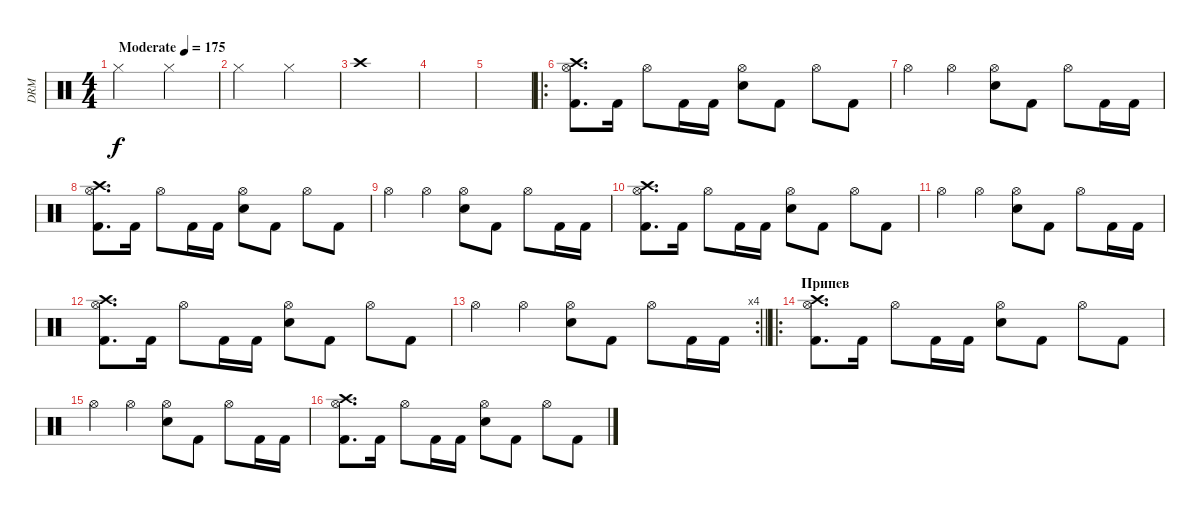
\track ("DRM " "DRM ") {instrument percussion}
\staff {score}
\articulation defaults
\ts (4 4)
\tempo (175 "Moderate")
\clef neutral
\ks c "Hi-Hat (closed)".2{dy f} "Hi-Hat (closed)".2
|
"Hi-Hat (closed)".2 "Hi-Hat (closed)".2 |
"Crash high (hit)".1 |
|
|
\ro
("Hi-Hat (open)" "Crash high (hit)" "Kick (hit) 2").8{d volume 15} "Kick (hit) 2".16 "Hi-Hat (open)".8 "Kick (hit) 2".16 "Kick (hit) 2".16 ("Hi-Hat (open)" "Electric Snare (hit)").8 "Kick (hit) 2".8 "Hi-Hat (open)".8 "Kick (hit) 2".8 |
"Hi-Hat (open)".4 "Hi-Hat (open)".4 ("Hi-Hat (open)" "Electric Snare (hit)").8 "Kick (hit) 2".8 "Hi-Hat (open)".8 "Kick (hit) 2".16 "Kick (hit) 2".16 |
("Hi-Hat (open)" "Crash high (hit)" "Kick (hit) 2").8{d volume 15} "Kick (hit) 2".16 "Hi-Hat (open)".8 "Kick (hit) 2".16 "Kick (hit) 2".16 ("Hi-Hat (open)" "Electric Snare (hit)").8 "Kick (hit) 2".8 "Hi-Hat (open)".8 "Kick (hit) 2".8 |
"Hi-Hat (open)".4 "Hi-Hat (open)".4 ("Hi-Hat (open)" "Electric Snare (hit)").8 "Kick (hit) 2".8 "Hi-Hat (open)".8 "Kick (hit) 2".16 "Kick (hit) 2".16 |
("Hi-Hat (open)" "Crash high (hit)" "Kick (hit) 2").8{d volume 15} "Kick (hit) 2".16 "Hi-Hat (open)".8 "Kick (hit) 2".16 "Kick (hit) 2".16 ("Hi-Hat (open)" "Electric Snare (hit)").8 "Kick (hit) 2".8 "Hi-Hat (open)".8 "Kick (hit) 2".8 |
"Hi-Hat (open)".4 "Hi-Hat (open)".4 ("Hi-Hat (open)" "Electric Snare (hit)").8 "Kick (hit) 2".8 "Hi-Hat (open)".8 "Kick (hit) 2".16 "Kick (hit) 2".16 |
("Hi-Hat (open)" "Crash high (hit)" "Kick (hit) 2").8{d volume 15} "Kick (hit) 2".16 "Hi-Hat (open)".8 "Kick (hit) 2".16 "Kick (hit) 2".16 ("Hi-Hat (open)" "Electric Snare (hit)").8 "Kick (hit) 2".8 "Hi-Hat (open)".8 "Kick (hit) 2".8 |
\rc 4
\barLineRight lightlight "Hi-Hat (open)".4 "Hi-Hat (open)".4
("Hi-Hat (open)" "Electric Snare (hit)").8 "Kick (hit) 2".8 "Hi-Hat (open)".8 "Kick (hit) 2".16 "Kick (hit) 2".16 |
\ro
\section ("" "Припев")
("Hi-Hat (open)" "Crash high (hit)" "Kick (hit) 2").8{d volume 15} "Kick (hit) 2".16 "Hi-Hat (open)".8 "Kick (hit) 2".16 "Kick (hit) 2".16 ("Hi-Hat (open)" "Electric Snare (hit)").8 "Kick (hit) 2".8 "Hi-Hat (open)".8 "Kick (hit) 2".8 |
"Hi-Hat (open)".4 "Hi-Hat (open)".4 ("Hi-Hat (open)" "Electric Snare (hit)").8 "Kick (hit) 2".8 "Hi-Hat (open)".8 "Kick (hit) 2".16 "Kick (hit) 2".16 |
("Hi-Hat (open)" "Crash high (hit)" "Kick (hit) 2").8{d volume 15} "Kick (hit) 2".16 "Hi-Hat (open)".8 "Kick (hit) 2".16 "Kick (hit) 2".16 ("Hi-Hat (open)" "Electric Snare (hit)").8 "Kick (hit) 2".8 "Hi-Hat (open)".8 "Kick (hit) 2".8
